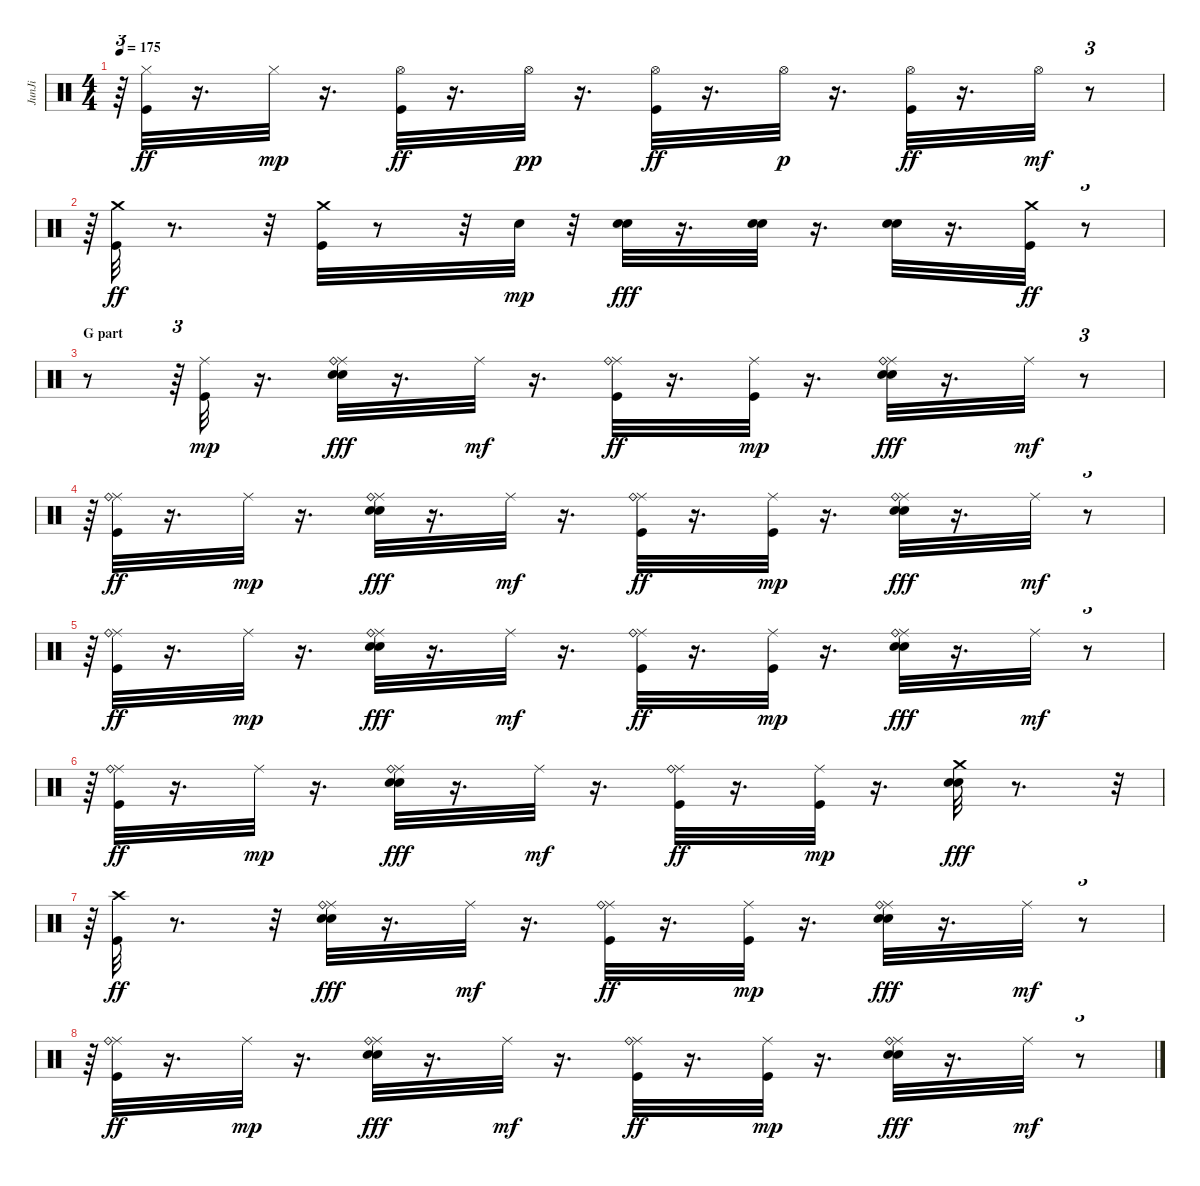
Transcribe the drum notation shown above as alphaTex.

\track ("JunJi" "JunJi") {instrument percussion}
\staff {score}
\articulation defaults
\ts (4 4)
\tempo 175
\clef neutral
\ks c
r.64{tu (3 2) dy mp} ("Hi-Hat (closed)" "Kick (hit)").32{dy ff} r.16{d} "Hi-Hat (closed)".32{dy mp} r.16{d} ("Hi-Hat (open)" "Kick (hit)").32{dy ff} r.16{d} "Hi-Hat (open)".32{dy pp} r.16{d} ("Hi-Hat (open)" "Kick (hit)").32{dy ff} r.16{d} "Hi-Hat (open)".32{dy p} r.16{d} ("Hi-Hat (open)" "Kick (hit)").32{dy ff} r.16{d} "Hi-Hat (open)".32{dy mf} r.8{tu (3 2)} |
r.64{tu (3 2)} ("Crash medium (hit)" "Kick (hit)").32{dy ff} r.8{d} r.32 ("Crash medium (hit)" "Kick (hit)").32 r.8 r.32 "Snare (hit) 2".32{dy mp} r.32 ("Electric Snare (hit)" "Snare (hit) 2").32{dy fff} r.16{d} ("Electric Snare (hit)" "Snare (hit) 2").32 r.16{d} ("Electric Snare (hit)" "Snare (hit) 2").32 r.16{d} ("Crash medium (hit)" "Kick (hit)").32{dy ff} r.8{tu (3 2)} |
\section ("" "G part")
r.8 r.64{tu (3 2)} ("Ride (middle)" "Kick (hit)").32{dy mp} r.16{d} ("Ride (middle)" "Ride (bell)" "Electric Snare (hit)" "Snare (hit) 2").32{dy fff} r.16{d} "Ride (middle)".32{dy mf} r.16{d} ("Ride (middle)" "Ride (bell)" "Kick (hit)").32{dy ff} r.16{d} ("Ride (middle)" "Kick (hit)").32{dy mp} r.16{d} ("Ride (middle)" "Ride (bell)" "Electric Snare (hit)" "Snare (hit) 2").32{dy fff} r.16{d} "Ride (middle)".32{dy mf} r.8{tu (3 2)} |
r.64{tu (3 2)} ("Ride (middle)" "Ride (bell)" "Kick (hit)").32{dy ff} r.16{d} "Ride (middle)".32{dy mp} r.16{d} ("Ride (middle)" "Ride (bell)" "Electric Snare (hit)" "Snare (hit) 2").32{dy fff} r.16{d} "Ride (middle)".32{dy mf} r.16{d} ("Ride (middle)" "Ride (bell)" "Kick (hit)").32{dy ff} r.16{d} ("Ride (middle)" "Kick (hit)").32{dy mp} r.16{d} ("Ride (middle)" "Ride (bell)" "Electric Snare (hit)" "Snare (hit) 2").32{dy fff} r.16{d} "Ride (middle)".32{dy mf} r.8{tu (3 2)} |
r.64{tu (3 2)} ("Ride (middle)" "Ride (bell)" "Kick (hit)").32{dy ff} r.16{d} "Ride (middle)".32{dy mp} r.16{d} ("Ride (middle)" "Ride (bell)" "Electric Snare (hit)" "Snare (hit) 2").32{dy fff} r.16{d} "Ride (middle)".32{dy mf} r.16{d} ("Ride (middle)" "Ride (bell)" "Kick (hit)").32{dy ff} r.16{d} ("Ride (middle)" "Kick (hit)").32{dy mp} r.16{d} ("Ride (middle)" "Ride (bell)" "Electric Snare (hit)" "Snare (hit) 2").32{dy fff} r.16{d} "Ride (middle)".32{dy mf} r.8{tu (3 2)} |
r.64{tu (3 2)} ("Ride (middle)" "Ride (bell)" "Kick (hit)").32{dy ff} r.16{d} "Ride (middle)".32{dy mp} r.16{d} ("Ride (middle)" "Ride (bell)" "Electric Snare (hit)" "Snare (hit) 2").32{dy fff} r.16{d} "Ride (middle)".32{dy mf} r.16{d} ("Ride (middle)" "Ride (bell)" "Kick (hit)").32{dy ff} r.16{d} ("Ride (middle)" "Kick (hit)").32{dy mp} r.16{d} ("Crash medium (hit)" "Electric Snare (hit)" "Snare (hit) 2").32{dy fff} r.8{d} r.32{tu (3 2)} |
r.64{tu (3 2)} ("Crash high (hit)" "Kick (hit)").32{dy ff} r.8{d} r.32 ("Ride (middle)" "Ride (bell)" "Electric Snare (hit)" "Snare (hit) 2").32{dy fff} r.16{d} "Ride (middle)".32{dy mf} r.16{d} ("Ride (middle)" "Ride (bell)" "Kick (hit)").32{dy ff} r.16{d} ("Ride (middle)" "Kick (hit)").32{dy mp} r.16{d} ("Ride (middle)" "Ride (bell)" "Electric Snare (hit)" "Snare (hit) 2").32{dy fff} r.16{d} "Ride (middle)".32{dy mf} r.8{tu (3 2)} |
r.64{tu (3 2)} ("Ride (middle)" "Ride (bell)" "Kick (hit)").32{dy ff} r.16{d} "Ride (middle)".32{dy mp} r.16{d} ("Ride (middle)" "Ride (bell)" "Electric Snare (hit)" "Snare (hit) 2").32{dy fff} r.16{d} "Ride (middle)".32{dy mf} r.16{d} ("Ride (middle)" "Ride (bell)" "Kick (hit)").32{dy ff} r.16{d} ("Ride (middle)" "Kick (hit)").32{dy mp} r.16{d} ("Ride (middle)" "Ride (bell)" "Electric Snare (hit)" "Snare (hit) 2").32{dy fff} r.16{d} "Ride (middle)".32{dy mf} r.8{tu (3 2)}
